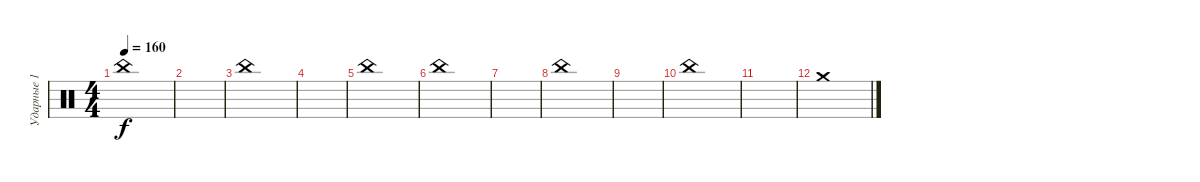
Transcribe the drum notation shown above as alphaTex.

\track ("Ударные 1" "Ударные 1") {instrument percussion}
\staff {score}
\articulation defaults
\ts (4 4)
\tempo 160
\clef neutral
\ks c "China (hit)".1{dy f}
|
|
"China (hit)".1 |
|
"China (hit)".1 |
"China (hit)".1 |
|
"China (hit)".1 |
|
"China (hit)".1 |
|
"Crash medium (hit)".1
